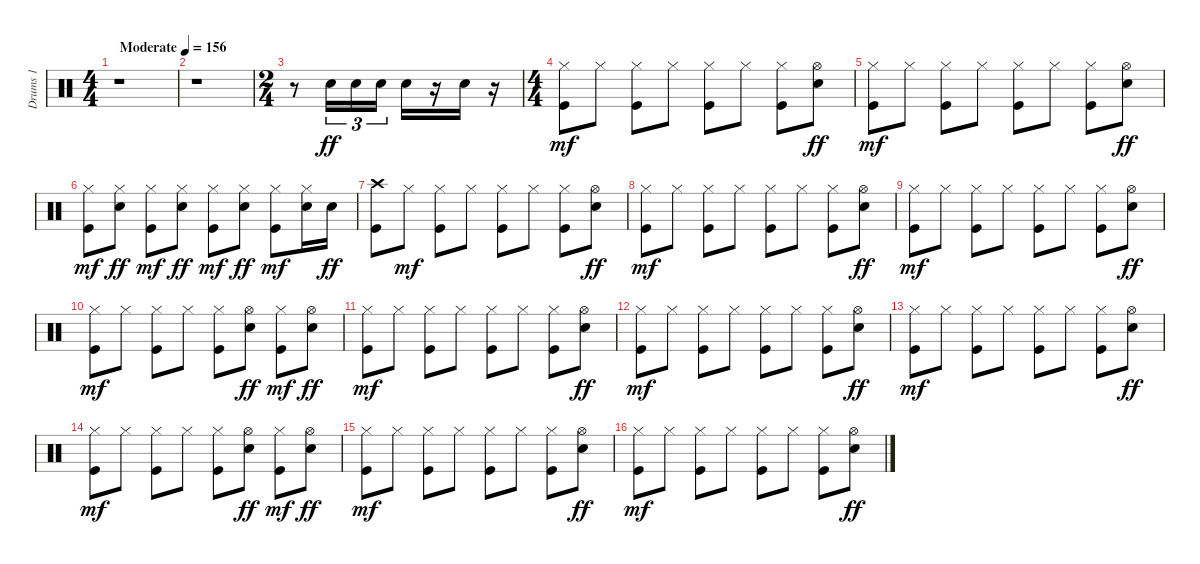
\track ("Drums 1" "Drums 1") {instrument percussion}
\staff {score}
\articulation defaults
\ts (4 4)
\tempo (156 "Moderate")
\clef neutral
\ks c
r.1{dy ff} |
r.1 |
\ts (2 4)
r.8 "Electric Snare (hit)".16{tu (3 2)} "Electric Snare (hit)".16{tu (3 2)} "Electric Snare (hit)".16{tu (3 2)} "Electric Snare (hit)".16 r.16 "Electric Snare (hit)".16 r.16 |
\ts (4 4)
("Kick (hit)" "Hi-Hat (closed)").8{dy mf} "Hi-Hat (closed)".8 ("Kick (hit)" "Hi-Hat (closed)").8 "Hi-Hat (closed)".8 ("Kick (hit)" "Hi-Hat (closed)").8 "Hi-Hat (closed)".8 ("Kick (hit)" "Hi-Hat (closed)").8 ("Electric Snare (hit)" "Hi-Hat (open)").8{dy ff} |
("Kick (hit)" "Hi-Hat (closed)").8{dy mf} "Hi-Hat (closed)".8 ("Kick (hit)" "Hi-Hat (closed)").8 "Hi-Hat (closed)".8 ("Kick (hit)" "Hi-Hat (closed)").8 "Hi-Hat (closed)".8 ("Kick (hit)" "Hi-Hat (closed)").8 ("Electric Snare (hit)" "Hi-Hat (open)").8{dy ff} |
("Kick (hit)" "Hi-Hat (closed)").8{dy mf} ("Hi-Hat (closed)" "Electric Snare (hit)").8{dy ff} ("Kick (hit)" "Hi-Hat (closed)").8{dy mf} ("Hi-Hat (closed)" "Electric Snare (hit)").8{dy ff} ("Kick (hit)" "Hi-Hat (closed)").8{dy mf} ("Hi-Hat (closed)" "Electric Snare (hit)").8{dy ff} ("Kick (hit)" "Hi-Hat (closed)").8{dy mf} ("Electric Snare (hit)" "Hi-Hat (closed)").16 "Electric Snare (hit)".16{dy ff} |
("Kick (hit)" "Crash high (hit)").8 "Hi-Hat (closed)".8{dy mf} ("Kick (hit)" "Hi-Hat (closed)").8 "Hi-Hat (closed)".8 ("Kick (hit)" "Hi-Hat (closed)").8 "Hi-Hat (closed)".8 ("Kick (hit)" "Hi-Hat (closed)").8 ("Electric Snare (hit)" "Hi-Hat (open)").8{dy ff} |
("Kick (hit)" "Hi-Hat (closed)").8{dy mf} "Hi-Hat (closed)".8 ("Kick (hit)" "Hi-Hat (closed)").8 "Hi-Hat (closed)".8 ("Kick (hit)" "Hi-Hat (closed)").8 "Hi-Hat (closed)".8 ("Kick (hit)" "Hi-Hat (closed)").8 ("Electric Snare (hit)" "Hi-Hat (open)").8{dy ff} |
("Kick (hit)" "Hi-Hat (closed)").8{dy mf} "Hi-Hat (closed)".8 ("Kick (hit)" "Hi-Hat (closed)").8 "Hi-Hat (closed)".8 ("Kick (hit)" "Hi-Hat (closed)").8 "Hi-Hat (closed)".8 ("Kick (hit)" "Hi-Hat (closed)").8 ("Electric Snare (hit)" "Hi-Hat (open)").8{dy ff} |
("Kick (hit)" "Hi-Hat (closed)").8{dy mf} "Hi-Hat (closed)".8 ("Kick (hit)" "Hi-Hat (closed)").8 "Hi-Hat (closed)".8 ("Kick (hit)" "Hi-Hat (closed)").8 ("Hi-Hat (open)" "Electric Snare (hit)").8{dy ff} ("Kick (hit)" "Hi-Hat (closed)").8{dy mf} ("Hi-Hat (open)" "Electric Snare (hit)").8{dy ff} |
("Kick (hit)" "Hi-Hat (closed)").8{dy mf} "Hi-Hat (closed)".8 ("Kick (hit)" "Hi-Hat (closed)").8 "Hi-Hat (closed)".8 ("Kick (hit)" "Hi-Hat (closed)").8 "Hi-Hat (closed)".8 ("Kick (hit)" "Hi-Hat (closed)").8 ("Electric Snare (hit)" "Hi-Hat (open)").8{dy ff} |
("Kick (hit)" "Hi-Hat (closed)").8{dy mf} "Hi-Hat (closed)".8 ("Kick (hit)" "Hi-Hat (closed)").8 "Hi-Hat (closed)".8 ("Kick (hit)" "Hi-Hat (closed)").8 "Hi-Hat (closed)".8 ("Kick (hit)" "Hi-Hat (closed)").8 ("Electric Snare (hit)" "Hi-Hat (open)").8{dy ff} |
("Kick (hit)" "Hi-Hat (closed)").8{dy mf} "Hi-Hat (closed)".8 ("Kick (hit)" "Hi-Hat (closed)").8 "Hi-Hat (closed)".8 ("Kick (hit)" "Hi-Hat (closed)").8 "Hi-Hat (closed)".8 ("Kick (hit)" "Hi-Hat (closed)").8 ("Electric Snare (hit)" "Hi-Hat (open)").8{dy ff} |
("Kick (hit)" "Hi-Hat (closed)").8{dy mf} "Hi-Hat (closed)".8 ("Kick (hit)" "Hi-Hat (closed)").8 "Hi-Hat (closed)".8 ("Kick (hit)" "Hi-Hat (closed)").8 ("Hi-Hat (open)" "Electric Snare (hit)").8{dy ff} ("Kick (hit)" "Hi-Hat (closed)").8{dy mf} ("Hi-Hat (open)" "Electric Snare (hit)").8{dy ff} |
("Kick (hit)" "Hi-Hat (closed)").8{dy mf} "Hi-Hat (closed)".8 ("Kick (hit)" "Hi-Hat (closed)").8 "Hi-Hat (closed)".8 ("Kick (hit)" "Hi-Hat (closed)").8 "Hi-Hat (closed)".8 ("Kick (hit)" "Hi-Hat (closed)").8 ("Electric Snare (hit)" "Hi-Hat (open)").8{dy ff} |
("Kick (hit)" "Hi-Hat (closed)").8{dy mf} "Hi-Hat (closed)".8 ("Kick (hit)" "Hi-Hat (closed)").8 "Hi-Hat (closed)".8 ("Kick (hit)" "Hi-Hat (closed)").8 "Hi-Hat (closed)".8 ("Kick (hit)" "Hi-Hat (closed)").8 ("Electric Snare (hit)" "Hi-Hat (open)").8{dy ff}
